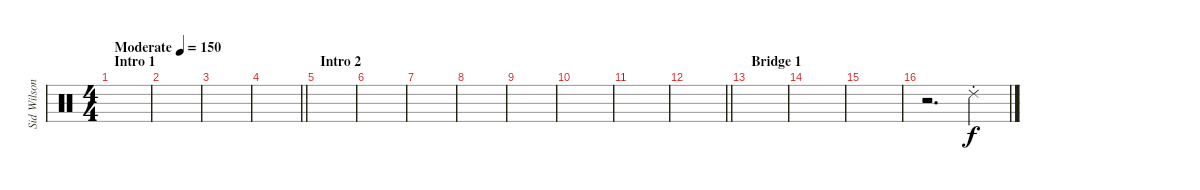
\track ("Sid Wilson" "Sid Wilson") {instrument percussion}
\staff {score}
\articulation defaults
\ts (4 4)
\section ("" "Intro 1")
\tempo (150 "Moderate")
\clef neutral
\ks c
|
|
|
\barLineRight lightlight
|
\section ("" "Intro 2")
|
|
|
|
|
|
|
\barLineRight lightlight
|
\section ("" "Bridge 1")
|
|
|
r.2{d} "Ride (choke) 2".4
